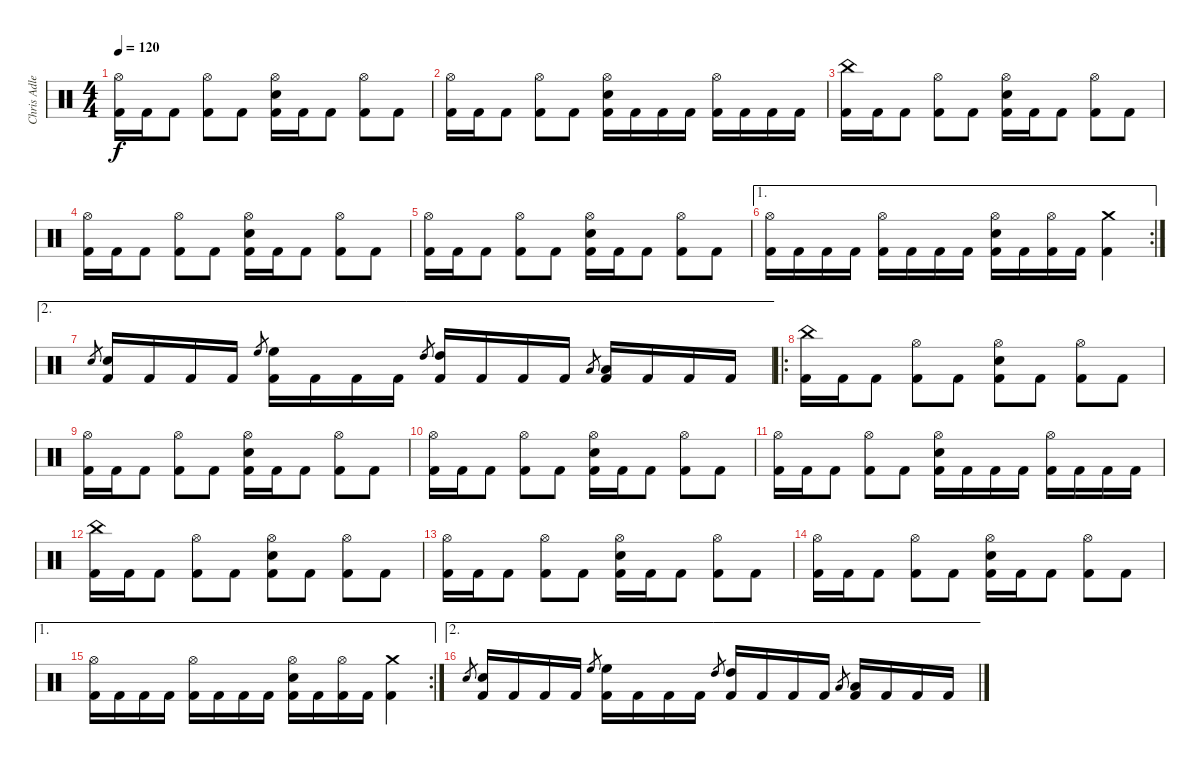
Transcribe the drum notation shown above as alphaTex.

\track ("Chris Adler" "Chris Adle") {instrument percussion}
\staff {score}
\articulation defaults
\ts (4 4)
\tempo 120
\clef neutral
\ks c
("Hi-Hat (open)" "Kick (hit) 2").16{dy f} "Kick (hit) 2".16 "Kick (hit) 2".8 ("Hi-Hat (open)" "Kick (hit) 2").8 "Kick (hit) 2".8 ("Hi-Hat (open)" "Snare (hit) 2" "Kick (hit) 2").16 "Kick (hit) 2".16 "Kick (hit) 2".8 ("Hi-Hat (open)" "Kick (hit) 2").8 "Kick (hit) 2".8 |
("Hi-Hat (open)" "Kick (hit) 2").16 "Kick (hit) 2".16 "Kick (hit) 2".8 ("Hi-Hat (open)" "Kick (hit) 2").8 "Kick (hit) 2".8 ("Hi-Hat (open)" "Snare (hit) 2" "Kick (hit) 2").16 "Kick (hit) 2".16 "Kick (hit) 2".16 "Kick (hit) 2".16 ("Hi-Hat (open)" "Kick (hit) 2").16 "Kick (hit) 2".16 "Kick (hit) 2".16 "Kick (hit) 2".16 |
("China (hit)" "Kick (hit) 2").16 "Kick (hit) 2".16 "Kick (hit) 2".8 ("Hi-Hat (open)" "Kick (hit) 2").8 "Kick (hit) 2".8 ("Hi-Hat (open)" "Snare (hit) 2" "Kick (hit) 2").16 "Kick (hit) 2".16 "Kick (hit) 2".8 ("Hi-Hat (open)" "Kick (hit) 2").8 "Kick (hit) 2".8 |
("Hi-Hat (open)" "Kick (hit) 2").16 "Kick (hit) 2".16 "Kick (hit) 2".8 ("Hi-Hat (open)" "Kick (hit) 2").8 "Kick (hit) 2".8 ("Hi-Hat (open)" "Snare (hit) 2" "Kick (hit) 2").16 "Kick (hit) 2".16 "Kick (hit) 2".8 ("Hi-Hat (open)" "Kick (hit) 2").8 "Kick (hit) 2".8 |
("Hi-Hat (open)" "Kick (hit) 2").16 "Kick (hit) 2".16 "Kick (hit) 2".8 ("Hi-Hat (open)" "Kick (hit) 2").8 "Kick (hit) 2".8 ("Hi-Hat (open)" "Snare (hit) 2" "Kick (hit) 2").16 "Kick (hit) 2".16 "Kick (hit) 2".8 ("Hi-Hat (open)" "Kick (hit) 2").8 "Kick (hit) 2".8 |
\ae 1
\rc 2
("Hi-Hat (open)" "Kick (hit) 2").16 "Kick (hit) 2".16 "Kick (hit) 2".16 "Kick (hit) 2".16 ("Hi-Hat (open)" "Kick (hit) 2").16 "Kick (hit) 2".16 "Kick (hit) 2".16 "Kick (hit) 2".16 ("Hi-Hat (open)" "Snare (hit) 2" "Kick (hit) 2").16 "Kick (hit) 2".16 ("Hi-Hat (open)" "Kick (hit) 2").16 "Kick (hit) 2".16 ("Crash medium (hit)" "Kick (hit) 2").4 |
\ae 2 "Snare (hit) 2".8{gr}
("Snare (hit) 2" "Kick (hit) 2").16 "Kick (hit) 2".16 "Kick (hit) 2".16 "Kick (hit) 2".16 "High Floor Tom (hit)".8{gr} ("High Floor Tom (hit)" "Kick (hit) 2").16 "Kick (hit) 2".16 "Kick (hit) 2".16 "Kick (hit) 2".16 "High Tom (hit)".8{gr} ("High Tom (hit)" "Kick (hit) 2").16 "Kick (hit) 2".16 "Kick (hit) 2".16 "Kick (hit) 2".16 "Low Floor Tom (hit)".8{gr} ("Low Floor Tom (hit)" "Kick (hit) 2").16 "Kick (hit) 2".16 "Kick (hit) 2".16 "Kick (hit) 2".16 |
\ro
("China (hit)" "Kick (hit) 2").16 "Kick (hit) 2".16 "Kick (hit) 2".8 ("Hi-Hat (open)" "Kick (hit) 2").8 "Kick (hit) 2".8 ("Hi-Hat (open)" "Snare (hit) 2" "Kick (hit) 2").8 "Kick (hit) 2".8 ("Hi-Hat (open)" "Kick (hit) 2").8 "Kick (hit) 2".8 |
("Hi-Hat (open)" "Kick (hit) 2").16 "Kick (hit) 2".16 "Kick (hit) 2".8 ("Hi-Hat (open)" "Kick (hit) 2").8 "Kick (hit) 2".8 ("Hi-Hat (open)" "Snare (hit) 2" "Kick (hit) 2").16 "Kick (hit) 2".16 "Kick (hit) 2".8 ("Hi-Hat (open)" "Kick (hit) 2").8 "Kick (hit) 2".8 |
("Hi-Hat (open)" "Kick (hit) 2").16 "Kick (hit) 2".16 "Kick (hit) 2".8 ("Hi-Hat (open)" "Kick (hit) 2").8 "Kick (hit) 2".8 ("Hi-Hat (open)" "Snare (hit) 2" "Kick (hit) 2").16 "Kick (hit) 2".16 "Kick (hit) 2".8 ("Hi-Hat (open)" "Kick (hit) 2").8 "Kick (hit) 2".8 |
("Hi-Hat (open)" "Kick (hit) 2").16 "Kick (hit) 2".16 "Kick (hit) 2".8 ("Hi-Hat (open)" "Kick (hit) 2").8 "Kick (hit) 2".8 ("Hi-Hat (open)" "Snare (hit) 2" "Kick (hit) 2").16 "Kick (hit) 2".16 "Kick (hit) 2".16 "Kick (hit) 2".16 ("Hi-Hat (open)" "Kick (hit) 2").16 "Kick (hit) 2".16 "Kick (hit) 2".16 "Kick (hit) 2".16 |
("China (hit)" "Kick (hit) 2").16 "Kick (hit) 2".16 "Kick (hit) 2".8 ("Hi-Hat (open)" "Kick (hit) 2").8 "Kick (hit) 2".8 ("Hi-Hat (open)" "Snare (hit) 2" "Kick (hit) 2").8 "Kick (hit) 2".8 ("Hi-Hat (open)" "Kick (hit) 2").8 "Kick (hit) 2".8 |
("Hi-Hat (open)" "Kick (hit) 2").16 "Kick (hit) 2".16 "Kick (hit) 2".8 ("Hi-Hat (open)" "Kick (hit) 2").8 "Kick (hit) 2".8 ("Hi-Hat (open)" "Snare (hit) 2" "Kick (hit) 2").16 "Kick (hit) 2".16 "Kick (hit) 2".8 ("Hi-Hat (open)" "Kick (hit) 2").8 "Kick (hit) 2".8 |
("Hi-Hat (open)" "Kick (hit) 2").16 "Kick (hit) 2".16 "Kick (hit) 2".8 ("Hi-Hat (open)" "Kick (hit) 2").8 "Kick (hit) 2".8 ("Hi-Hat (open)" "Snare (hit) 2" "Kick (hit) 2").16 "Kick (hit) 2".16 "Kick (hit) 2".8 ("Hi-Hat (open)" "Kick (hit) 2").8 "Kick (hit) 2".8 |
\ae 1
\rc 2
("Hi-Hat (open)" "Kick (hit) 2").16 "Kick (hit) 2".16 "Kick (hit) 2".16 "Kick (hit) 2".16 ("Hi-Hat (open)" "Kick (hit) 2").16 "Kick (hit) 2".16 "Kick (hit) 2".16 "Kick (hit) 2".16 ("Hi-Hat (open)" "Snare (hit) 2" "Kick (hit) 2").16 "Kick (hit) 2".16 ("Hi-Hat (open)" "Kick (hit) 2").16 "Kick (hit) 2".16 ("Crash medium (hit)" "Kick (hit) 2").4 |
\ae 2 "Snare (hit) 2".8{gr}
("Snare (hit) 2" "Kick (hit) 2").16 "Kick (hit) 2".16 "Kick (hit) 2".16 "Kick (hit) 2".16 "High Floor Tom (hit)".8{gr} ("High Floor Tom (hit)" "Kick (hit) 2").16 "Kick (hit) 2".16 "Kick (hit) 2".16 "Kick (hit) 2".16 "High Tom (hit)".8{gr} ("High Tom (hit)" "Kick (hit) 2").16 "Kick (hit) 2".16 "Kick (hit) 2".16 "Kick (hit) 2".16 "Low Floor Tom (hit)".8{gr} ("Low Floor Tom (hit)" "Kick (hit) 2").16 "Kick (hit) 2".16 "Kick (hit) 2".16 "Kick (hit) 2".16
